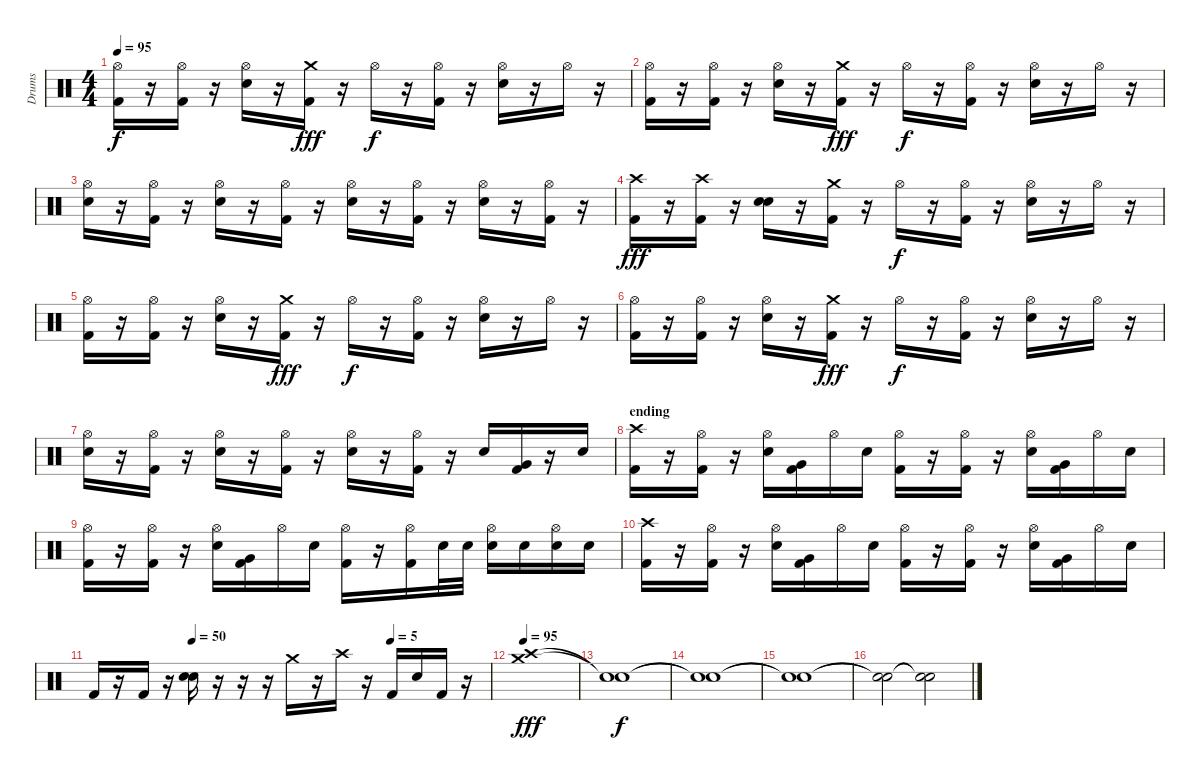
\track ("Drums" "Drums") {instrument percussion}
\staff {score}
\articulation defaults
\ts (4 4)
\tempo 95
\clef neutral
\ks c
("Hi-Hat (open)" "Kick (hit) 2").16{dy f} r.16 ("Hi-Hat (open)" "Kick (hit) 2").16 r.16 ("Hi-Hat (open)" "Electric Snare (hit)").16 r.16 ("Crash medium (hit)" "Kick (hit) 2").16{dy fff} r.16 "Hi-Hat (open)".16{dy f} r.16 ("Hi-Hat (open)" "Kick (hit) 2").16 r.16 ("Hi-Hat (open)" "Electric Snare (hit)").16 r.16 "Hi-Hat (open)".16 r.16 |
("Hi-Hat (open)" "Kick (hit) 2").16 r.16 ("Hi-Hat (open)" "Kick (hit) 2").16 r.16 ("Hi-Hat (open)" "Electric Snare (hit)").16 r.16 ("Crash medium (hit)" "Kick (hit) 2").16{dy fff} r.16 "Hi-Hat (open)".16{dy f} r.16 ("Hi-Hat (open)" "Kick (hit) 2").16 r.16 ("Hi-Hat (open)" "Electric Snare (hit)").16 r.16 "Hi-Hat (open)".16 r.16 |
("Hi-Hat (open)" "Electric Snare (hit)").16 r.16 ("Hi-Hat (open)" "Kick (hit) 2").16 r.16 ("Hi-Hat (open)" "Electric Snare (hit)").16 r.16 ("Hi-Hat (open)" "Kick (hit) 2").16 r.16 ("Hi-Hat (open)" "Electric Snare (hit)").16 r.16 ("Hi-Hat (open)" "Kick (hit) 2").16 r.16 ("Hi-Hat (open)" "Electric Snare (hit)").16 r.16 ("Hi-Hat (open)" "Kick (hit) 2").16 r.16 |
("Crash high (hit)" "Kick (hit) 2").16{dy fff} r.16 ("Crash high (hit)" "Kick (hit) 2").16 r.16 ("Snare (hit) 2" "Electric Snare (hit)").16 r.16 ("Crash medium (hit)" "Kick (hit) 2").16 r.16 "Hi-Hat (open)".16{dy f} r.16 ("Hi-Hat (open)" "Kick (hit) 2").16 r.16 ("Hi-Hat (open)" "Electric Snare (hit)").16 r.16 "Hi-Hat (open)".16 r.16 |
("Hi-Hat (open)" "Kick (hit) 2").16 r.16 ("Hi-Hat (open)" "Kick (hit) 2").16 r.16 ("Hi-Hat (open)" "Electric Snare (hit)").16 r.16 ("Crash medium (hit)" "Kick (hit) 2").16{dy fff} r.16 "Hi-Hat (open)".16{dy f} r.16 ("Hi-Hat (open)" "Kick (hit) 2").16 r.16 ("Hi-Hat (open)" "Electric Snare (hit)").16 r.16 "Hi-Hat (open)".16 r.16 |
("Hi-Hat (open)" "Kick (hit) 2").16 r.16 ("Hi-Hat (open)" "Kick (hit) 2").16 r.16 ("Hi-Hat (open)" "Electric Snare (hit)").16 r.16 ("Crash medium (hit)" "Kick (hit) 2").16{dy fff} r.16 "Hi-Hat (open)".16{dy f} r.16 ("Hi-Hat (open)" "Kick (hit) 2").16 r.16 ("Hi-Hat (open)" "Electric Snare (hit)").16 r.16 "Hi-Hat (open)".16 r.16 |
("Hi-Hat (open)" "Electric Snare (hit)").16 r.16 ("Hi-Hat (open)" "Kick (hit) 2").16 r.16 ("Hi-Hat (open)" "Electric Snare (hit)").16 r.16 ("Hi-Hat (open)" "Kick (hit) 2").16 r.16 ("Hi-Hat (open)" "Electric Snare (hit)").16 r.16 ("Hi-Hat (open)" "Kick (hit) 2").16 r.16 "Electric Snare (hit)".16 ("Very Low Tom (hit)" "Kick (hit) 2").16 r.16 "Electric Snare (hit)".16 |
\section ("" "ending")
("Crash high (hit)" "Kick (hit) 2").16 r.16 ("Hi-Hat (open)" "Kick (hit) 2").16 r.16 ("Hi-Hat (open)" "Electric Snare (hit)").16 ("Very Low Tom (hit)" "Kick (hit) 2").16 "Hi-Hat (open)".16 "Electric Snare (hit)".16 ("Hi-Hat (open)" "Kick (hit) 2").16 r.16 ("Hi-Hat (open)" "Kick (hit) 2").16 r.16 ("Hi-Hat (open)" "Electric Snare (hit)").16 ("Very Low Tom (hit)" "Kick (hit) 2").16 "Hi-Hat (open)".16 "Electric Snare (hit)".16 |
("Hi-Hat (open)" "Kick (hit) 2").16 r.16 ("Hi-Hat (open)" "Kick (hit) 2").16 r.16 ("Hi-Hat (open)" "Electric Snare (hit)").16 ("Very Low Tom (hit)" "Kick (hit) 2").16 "Hi-Hat (open)".16 "Electric Snare (hit)".16 ("Hi-Hat (open)" "Kick (hit) 2").16 r.16 ("Hi-Hat (open)" "Kick (hit) 2").16 "Electric Snare (hit)".32 "Electric Snare (hit)".32 ("Hi-Hat (open)" "Electric Snare (hit)").16 "Electric Snare (hit)".16 ("Hi-Hat (open)" "Electric Snare (hit)").16 "Electric Snare (hit)".16 |
("Crash high (hit)" "Kick (hit) 2").16 r.16 ("Hi-Hat (open)" "Kick (hit) 2").16 r.16 ("Hi-Hat (open)" "Electric Snare (hit)").16 ("Very Low Tom (hit)" "Kick (hit) 2").16 "Hi-Hat (open)".16 "Electric Snare (hit)".16 ("Hi-Hat (open)" "Kick (hit) 2").16 r.16 ("Hi-Hat (open)" "Kick (hit) 2").16 r.16 ("Hi-Hat (open)" "Electric Snare (hit)").16 ("Very Low Tom (hit)" "Kick (hit) 2").16 "Hi-Hat (open)".16 "Electric Snare (hit)".16 |
\tempo (50 0.25)
\tempo (5 0.75)
"Kick (hit) 2".16 r.16 "Kick (hit) 2".16 r.16 ("Snare (hit) 2" "Electric Snare (hit)").16 r.16 r.16 r.16 "Crash medium (hit)".16 r.16 "Crash high (hit)".16 r.16 "Kick (hit) 2".16 "Electric Snare (hit)".16 "Kick (hit) 2".16 r.16 |
\tempo 95
("Crash medium (hit)" "Crash high (hit)").1{dy fff} |
("Snare (hit)"{t} "Snare (hit)"{t}).1{dy f} |
("Snare (hit)"{t} "Snare (hit)"{t}).1 |
("Snare (hit)"{t} "Snare (hit)"{t}).1 |
("Snare (hit)"{t} "Snare (hit)"{t}).2 ("Snare (hit)"{t} "Snare (hit)"{t}).2{volume 0}
